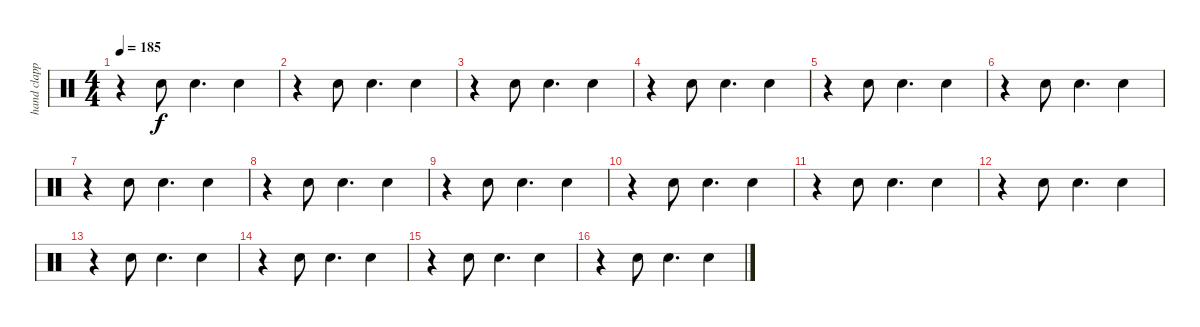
\track ("hand clapping" "hand clapp") {instrument percussion}
\staff {score}
\articulation defaults
\ts (4 4)
\tempo 185
\clef neutral
\ks c
r.4{dy f volume 12} "Hand Clap (hit)".8 "Hand Clap (hit)".4{d} "Hand Clap (hit)".4 |
r.4 "Hand Clap (hit)".8 "Hand Clap (hit)".4{d} "Hand Clap (hit)".4 |
r.4 "Hand Clap (hit)".8 "Hand Clap (hit)".4{d} "Hand Clap (hit)".4 |
r.4 "Hand Clap (hit)".8 "Hand Clap (hit)".4{d} "Hand Clap (hit)".4 |
r.4 "Hand Clap (hit)".8 "Hand Clap (hit)".4{d} "Hand Clap (hit)".4 |
r.4 "Hand Clap (hit)".8 "Hand Clap (hit)".4{d} "Hand Clap (hit)".4 |
r.4 "Hand Clap (hit)".8 "Hand Clap (hit)".4{d} "Hand Clap (hit)".4 |
r.4 "Hand Clap (hit)".8 "Hand Clap (hit)".4{d} "Hand Clap (hit)".4 |
r.4 "Hand Clap (hit)".8 "Hand Clap (hit)".4{d} "Hand Clap (hit)".4 |
r.4 "Hand Clap (hit)".8 "Hand Clap (hit)".4{d} "Hand Clap (hit)".4 |
r.4 "Hand Clap (hit)".8 "Hand Clap (hit)".4{d} "Hand Clap (hit)".4 |
r.4 "Hand Clap (hit)".8 "Hand Clap (hit)".4{d} "Hand Clap (hit)".4 |
r.4 "Hand Clap (hit)".8 "Hand Clap (hit)".4{d} "Hand Clap (hit)".4 |
r.4 "Hand Clap (hit)".8 "Hand Clap (hit)".4{d} "Hand Clap (hit)".4 |
r.4 "Hand Clap (hit)".8 "Hand Clap (hit)".4{d} "Hand Clap (hit)".4 |
r.4 "Hand Clap (hit)".8 "Hand Clap (hit)".4{d} "Hand Clap (hit)".4
